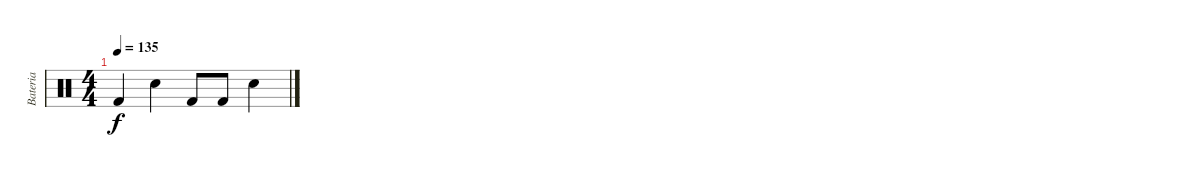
\track ("Bateria" "Bateria") {instrument percussion}
\staff {score}
\articulation defaults
\ts (4 4)
\tempo 135
\clef neutral
\ks c "Kick (hit) 2".4{dy f} "Electric Snare (hit)".4 "Kick (hit) 2".8 "Kick (hit) 2".8 "Electric Snare (hit)".4
